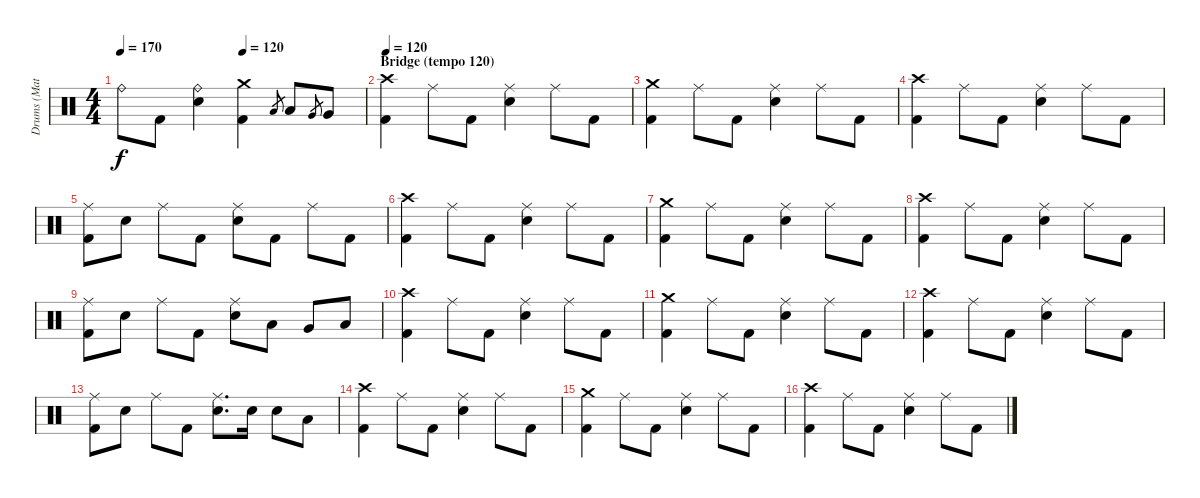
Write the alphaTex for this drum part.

\track ("Drums (Matt)" "Drums (Mat") {instrument percussion}
\staff {score}
\articulation defaults
\ts (4 4)
\tempo 170
\tempo (120 0.5)
\clef neutral
\ks c "Ride (bell)".8{dy f} "Kick (hit) 2".8
("Ride (bell)" "Snare (hit) 2").4 ("Crash medium (hit)" "Kick (hit) 2").4 "Low Tom (hit)".8{gr} "Low Tom (hit)".8 "Very Low Tom (hit)".8{gr} "Very Low Tom (hit)".8 |
\section ("" "Bridge (tempo 120)")
\tempo 120
("Crash high (hit)" "Kick (hit) 2").4 "Ride (middle)".8 "Kick (hit) 2".8 ("Ride (middle)" "Snare (hit) 2").4 "Ride (middle)".8 "Kick (hit) 2".8 |
("Crash medium (hit)" "Kick (hit) 2").4 "Ride (middle)".8 "Kick (hit) 2".8 ("Ride (middle)" "Snare (hit) 2").4 "Ride (middle)".8 "Kick (hit) 2".8 |
("Crash high (hit)" "Kick (hit) 2").4 "Ride (middle)".8 "Kick (hit) 2".8 ("Ride (middle)" "Snare (hit) 2").4 "Ride (middle)".8 "Kick (hit) 2".8 |
("Ride (middle)" "Kick (hit) 2").8 "Snare (hit) 2".8 "Ride (middle)".8 "Kick (hit) 2".8 ("Ride (middle)" "Snare (hit) 2").8 "Kick (hit) 2".8 "Ride (middle)".8 "Kick (hit) 2".8 |
("Crash high (hit)" "Kick (hit) 2").4 "Ride (middle)".8 "Kick (hit) 2".8 ("Ride (middle)" "Snare (hit) 2").4 "Ride (middle)".8 "Kick (hit) 2".8 |
("Crash medium (hit)" "Kick (hit) 2").4 "Ride (middle)".8 "Kick (hit) 2".8 ("Ride (middle)" "Snare (hit) 2").4 "Ride (middle)".8 "Kick (hit) 2".8 |
("Crash high (hit)" "Kick (hit) 2").4 "Ride (middle)".8 "Kick (hit) 2".8 ("Ride (middle)" "Snare (hit) 2").4 "Ride (middle)".8 "Kick (hit) 2".8 |
("Ride (middle)" "Kick (hit) 2").8 "Snare (hit) 2".8 "Ride (middle)".8 "Kick (hit) 2".8 ("Ride (middle)" "Snare (hit) 2").8 "Low Tom (hit)".8 "Very Low Tom (hit)".8 "Low Floor Tom (hit)".8 |
("Crash high (hit)" "Kick (hit) 2").4 "Ride (middle)".8 "Kick (hit) 2".8 ("Ride (middle)" "Snare (hit) 2").4 "Ride (middle)".8 "Kick (hit) 2".8 |
("Crash medium (hit)" "Kick (hit) 2").4 "Ride (middle)".8 "Kick (hit) 2".8 ("Ride (middle)" "Snare (hit) 2").4 "Ride (middle)".8 "Kick (hit) 2".8 |
("Crash high (hit)" "Kick (hit) 2").4 "Ride (middle)".8 "Kick (hit) 2".8 ("Ride (middle)" "Snare (hit) 2").4 "Ride (middle)".8 "Kick (hit) 2".8 |
("Ride (middle)" "Kick (hit) 2").8 "Snare (hit) 2".8 "Ride (middle)".8 "Kick (hit) 2".8 ("Ride (middle)" "Snare (hit) 2").8{d} "Snare (hit) 2".16 "Snare (hit) 2".8 "Low Tom (hit)".8 |
("Crash high (hit)" "Kick (hit) 2").4 "Ride (middle)".8 "Kick (hit) 2".8 ("Ride (middle)" "Snare (hit) 2").4 "Ride (middle)".8 "Kick (hit) 2".8 |
("Crash medium (hit)" "Kick (hit) 2").4 "Ride (middle)".8 "Kick (hit) 2".8 ("Ride (middle)" "Snare (hit) 2").4 "Ride (middle)".8 "Kick (hit) 2".8 |
("Crash high (hit)" "Kick (hit) 2").4 "Ride (middle)".8 "Kick (hit) 2".8 ("Ride (middle)" "Snare (hit) 2").4 "Ride (middle)".8 "Kick (hit) 2".8
